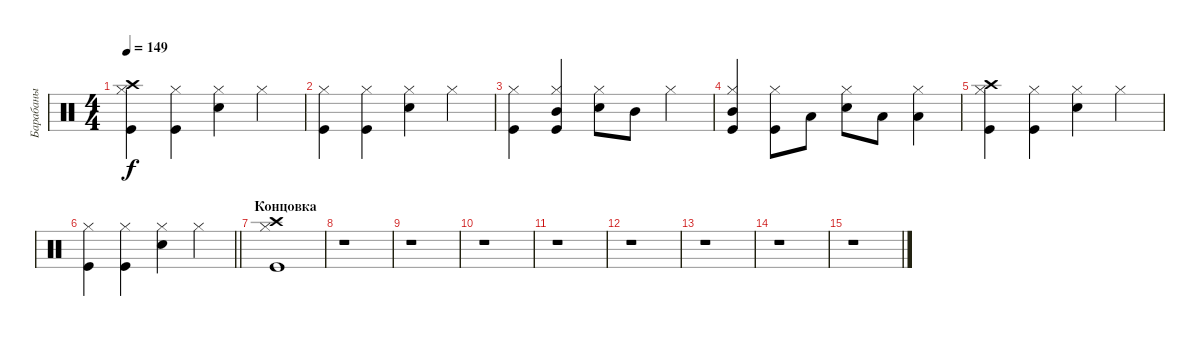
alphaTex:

\track ("Барабаны" "Барабаны") {instrument percussion}
\staff {score}
\articulation defaults
\ts (4 4)
\tempo 149
\clef neutral
\ks c
("Kick (hit)" "Hi-Hat (closed)" "Crash high (hit)").4{dy f} ("Kick (hit)" "Hi-Hat (closed)").4 ("Snare (hit) 2" "Hi-Hat (closed)").4 "Hi-Hat (closed)".4 |
("Kick (hit)" "Hi-Hat (closed)").4 ("Kick (hit)" "Hi-Hat (closed)").4 ("Snare (hit) 2" "Hi-Hat (closed)").4 "Hi-Hat (closed)".4 |
("Kick (hit)" "Hi-Hat (closed)").4 ("Kick (hit)" "Hi-Hat (closed)" "Mid Tom (hit)").4 ("Snare (hit) 2" "Hi-Hat (closed)").8 "Mid Tom (hit)".8 "Hi-Hat (closed)".4 |
("Kick (hit)" "Hi-Hat (closed)" "Mid Tom (hit)").4 ("Kick (hit)" "Hi-Hat (closed)").8 "Low Tom (hit)".8 ("Snare (hit) 2" "Hi-Hat (closed)").8 "Low Tom (hit)".8 ("Hi-Hat (closed)" "Low Tom (hit)").4 |
("Kick (hit)" "Hi-Hat (closed)" "Crash high (hit)").4 ("Kick (hit)" "Hi-Hat (closed)").4 ("Snare (hit) 2" "Hi-Hat (closed)").4 "Hi-Hat (closed)".4 |
\barLineRight lightlight
("Kick (hit)" "Hi-Hat (closed)").4 ("Kick (hit)" "Hi-Hat (closed)").4 ("Snare (hit) 2" "Hi-Hat (closed)").4 "Hi-Hat (closed)".4 |
\section ("" "Концовка")
("Kick (hit)" "Hi-Hat (closed)" "Crash high (hit)").1 |
r.1 |
r.1 |
r.1 |
r.1 |
r.1 |
r.1 |
r.1 |
r.1
